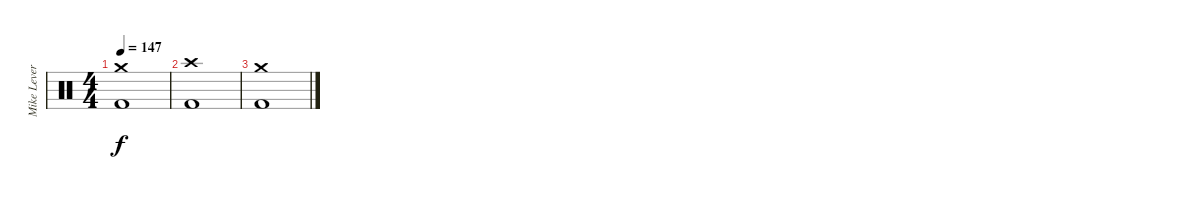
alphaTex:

\track ("Mike Leverence - Drums" "Mike Lever") {instrument percussion}
\staff {score}
\articulation defaults
\ts (4 4)
\tempo 147
\clef neutral
\ks c
("Crash medium (hit)" "Kick (hit) 2").1{dy f} |
("Crash high (hit)" "Kick (hit) 2").1 |
("Crash medium (hit)" "Kick (hit) 2").1
